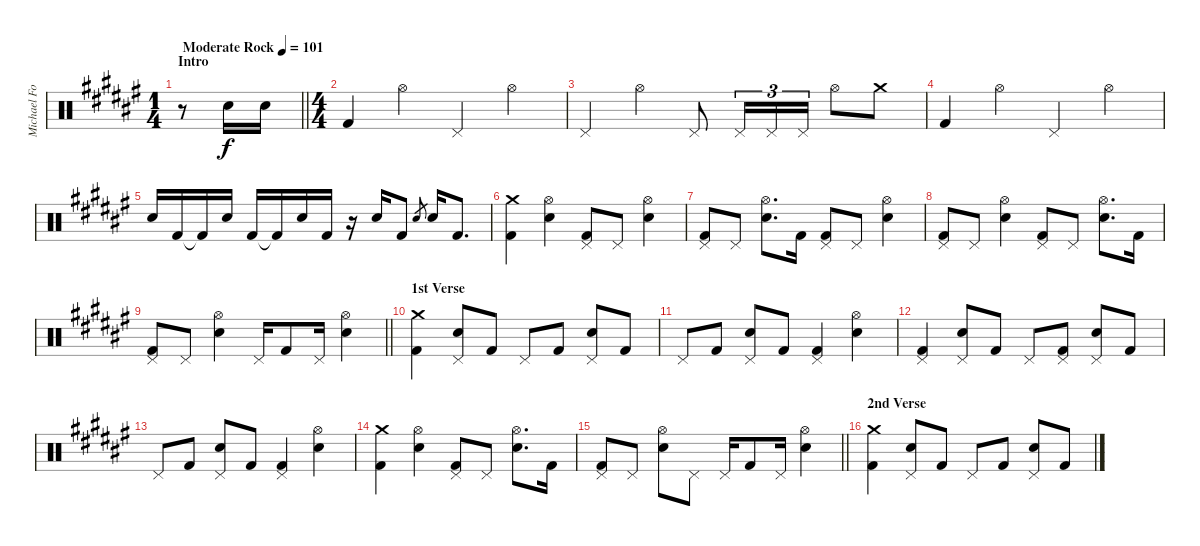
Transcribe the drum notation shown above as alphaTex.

\track ("Michael Foster" "Michael Fo") {instrument percussion}
\staff {score}
\articulation defaults
\ts (1 4)
\section ("" "Intro")
\tempo (101 "Moderate Rock")
\clef neutral
\barLineRight lightlight
\ks f#
r.8{dy f} "Snare (hit) 2".16 "Snare (hit) 2".16 |
\ts (4 4)
"Kick (hit) 2".4 "Hi-Hat (open)".4 "Pedal Hi-Hat (hit)".4 "Hi-Hat (open)".4 |
"Pedal Hi-Hat (hit)".4 "Hi-Hat (open)".4 "Pedal Hi-Hat (hit)".8 "Pedal Hi-Hat (hit)".16{tu (3 2)} "Pedal Hi-Hat (hit)".16{tu (3 2)} "Pedal Hi-Hat (hit)".16{tu (3 2)} "Hi-Hat (open)".8 "Crash medium (hit)".8 |
"Kick (hit) 2".4 "Hi-Hat (open)".4 "Pedal Hi-Hat (hit)".4 "Hi-Hat (open)".4 |
"Snare (hit) 2".16 "Kick (hit) 2".16 "Kick (hit) 2"{t}.16 "Snare (hit) 2".16 "Kick (hit) 2".16 "Kick (hit) 2"{t}.16 "Snare (hit) 2".16 "Kick (hit) 2".16 r.16 "Snare (hit) 2".16 "Kick (hit) 2".8 "Snare (hit) 2".8{gr} "Snare (hit) 2".16 "Kick (hit) 2".8{d} |
("Crash medium (hit)" "Kick (hit) 2").4 ("Hi-Hat (open)" "Snare (hit) 2").4 ("Pedal Hi-Hat (hit)" "Kick (hit) 2").8 "Pedal Hi-Hat (hit)".8 ("Hi-Hat (open)" "Snare (hit) 2").4 |
("Pedal Hi-Hat (hit)" "Kick (hit) 2").8 "Pedal Hi-Hat (hit)".8 ("Hi-Hat (open)" "Snare (hit) 2").8{d} "Kick (hit) 2".16 ("Pedal Hi-Hat (hit)" "Kick (hit) 2").8 "Pedal Hi-Hat (hit)".8 ("Hi-Hat (open)" "Snare (hit) 2").4 |
("Pedal Hi-Hat (hit)" "Kick (hit) 2").8 "Pedal Hi-Hat (hit)".8 ("Hi-Hat (open)" "Snare (hit) 2").4 ("Pedal Hi-Hat (hit)" "Kick (hit) 2").8 "Pedal Hi-Hat (hit)".8 ("Hi-Hat (open)" "Snare (hit) 2").8{d} "Kick (hit) 2".16 |
\barLineRight lightlight
("Pedal Hi-Hat (hit)" "Kick (hit) 2").8 "Pedal Hi-Hat (hit)".8 ("Hi-Hat (open)" "Snare (hit) 2").4 "Pedal Hi-Hat (hit)".16 "Kick (hit) 2".8 "Pedal Hi-Hat (hit)".16 ("Hi-Hat (open)" "Snare (hit) 2").4 |
\section ("" "1st Verse")
("Crash medium (hit)" "Kick (hit) 2").4 ("Pedal Hi-Hat (hit)" "Snare (hit) 2").8 "Kick (hit) 2".8 "Pedal Hi-Hat (hit)".8 "Kick (hit) 2".8 ("Pedal Hi-Hat (hit)" "Snare (hit) 2").8 "Kick (hit) 2".8 |
"Pedal Hi-Hat (hit)".8 "Kick (hit) 2".8 ("Pedal Hi-Hat (hit)" "Snare (hit) 2").8 "Kick (hit) 2".8 ("Pedal Hi-Hat (hit)" "Kick (hit) 2").4 ("Hi-Hat (open)" "Snare (hit) 2").4 |
("Pedal Hi-Hat (hit)" "Kick (hit) 2").4 ("Pedal Hi-Hat (hit)" "Snare (hit) 2").8 "Kick (hit) 2".8 "Pedal Hi-Hat (hit)".8 ("Pedal Hi-Hat (hit)" "Kick (hit) 2").8 ("Pedal Hi-Hat (hit)" "Snare (hit) 2").8 "Kick (hit) 2".8 |
"Pedal Hi-Hat (hit)".8 "Kick (hit) 2".8 ("Pedal Hi-Hat (hit)" "Snare (hit) 2").8 "Kick (hit) 2".8 ("Pedal Hi-Hat (hit)" "Kick (hit) 2").4 ("Hi-Hat (open)" "Snare (hit) 2").4 |
("Crash medium (hit)" "Kick (hit) 2").4 ("Hi-Hat (open)" "Snare (hit) 2").4 ("Pedal Hi-Hat (hit)" "Kick (hit) 2").8 "Pedal Hi-Hat (hit)".8 ("Hi-Hat (open)" "Snare (hit) 2").8{d} "Kick (hit) 2".16 |
\barLineRight lightlight
("Pedal Hi-Hat (hit)" "Kick (hit) 2").8 "Pedal Hi-Hat (hit)".8 ("Hi-Hat (open)" "Snare (hit) 2").8 "Pedal Hi-Hat (hit)".8 "Pedal Hi-Hat (hit)".16 "Kick (hit) 2".8 "Pedal Hi-Hat (hit)".16 ("Hi-Hat (open)" "Snare (hit) 2").4 |
\section ("" "2nd Verse")
("Crash medium (hit)" "Kick (hit) 2").4 ("Pedal Hi-Hat (hit)" "Snare (hit) 2").8 "Kick (hit) 2".8 "Pedal Hi-Hat (hit)".8 "Kick (hit) 2".8 ("Pedal Hi-Hat (hit)" "Snare (hit) 2").8 "Kick (hit) 2".8
